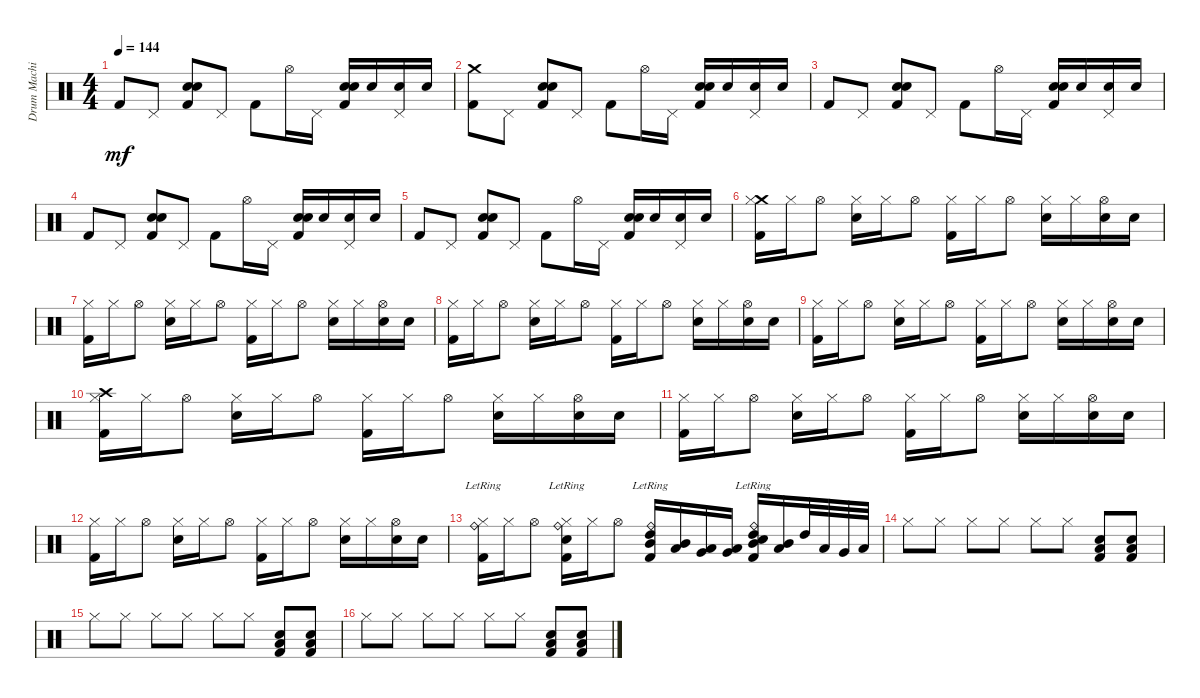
\track ("Drum Machine" "Drum Machi") {instrument percussion}
\staff {score}
\articulation defaults
\ts (4 4)
\tempo 144
\clef neutral
\ks c "Kick (hit) 2".8{dy mf} "Pedal Hi-Hat (hit)".8
("Hand Clap (hit)" "Electric Snare (hit)" "Kick (hit) 2").8 "Pedal Hi-Hat (hit)".8 "Kick (hit) 2".8 "Hi-Hat (open)".16 "Pedal Hi-Hat (hit)".16 ("Hand Clap (hit)" "Electric Snare (hit)" "Kick (hit) 2").16 "Hand Clap (hit)".16 ("Pedal Hi-Hat (hit)" "Hand Clap (hit)").16 "Hand Clap (hit)".16 |
("Crash medium (hit)" "Kick (hit) 2").8 "Pedal Hi-Hat (hit)".8 ("Hand Clap (hit)" "Electric Snare (hit)" "Kick (hit) 2").8 "Pedal Hi-Hat (hit)".8 "Kick (hit) 2".8 "Hi-Hat (open)".16 "Pedal Hi-Hat (hit)".16 ("Hand Clap (hit)" "Electric Snare (hit)" "Kick (hit) 2").16 "Hand Clap (hit)".16 ("Pedal Hi-Hat (hit)" "Hand Clap (hit)").16 "Hand Clap (hit)".16 |
"Kick (hit) 2".8 "Pedal Hi-Hat (hit)".8 ("Hand Clap (hit)" "Electric Snare (hit)" "Kick (hit) 2").8 "Pedal Hi-Hat (hit)".8 "Kick (hit) 2".8 "Hi-Hat (open)".16 "Pedal Hi-Hat (hit)".16 ("Hand Clap (hit)" "Electric Snare (hit)" "Kick (hit) 2").16 "Hand Clap (hit)".16 ("Pedal Hi-Hat (hit)" "Hand Clap (hit)").16 "Hand Clap (hit)".16 |
"Kick (hit) 2".8 "Pedal Hi-Hat (hit)".8 ("Hand Clap (hit)" "Electric Snare (hit)" "Kick (hit) 2").8 "Pedal Hi-Hat (hit)".8 "Kick (hit) 2".8 "Hi-Hat (open)".16 "Pedal Hi-Hat (hit)".16 ("Hand Clap (hit)" "Electric Snare (hit)" "Kick (hit) 2").16 "Hand Clap (hit)".16 ("Pedal Hi-Hat (hit)" "Hand Clap (hit)").16 "Hand Clap (hit)".16 |
"Kick (hit) 2".8 "Pedal Hi-Hat (hit)".8 ("Hand Clap (hit)" "Electric Snare (hit)" "Kick (hit) 2").8 "Pedal Hi-Hat (hit)".8 "Kick (hit) 2".8 "Hi-Hat (open)".16 "Pedal Hi-Hat (hit)".16 ("Hand Clap (hit)" "Electric Snare (hit)" "Kick (hit) 2").16 "Hand Clap (hit)".16 ("Pedal Hi-Hat (hit)" "Hand Clap (hit)").16 "Hand Clap (hit)".16 |
("Crash medium (hit)" "Hi-Hat (closed)" "Kick (hit) 2").16 "Hi-Hat (closed)".16 "Hi-Hat (open)".8 ("Hi-Hat (closed)" "Hand Clap (hit)").16 "Hi-Hat (closed)".16 "Hi-Hat (open)".8 ("Hi-Hat (closed)" "Kick (hit) 2").16 "Hi-Hat (closed)".16 "Hi-Hat (open)".8 ("Hi-Hat (closed)" "Hand Clap (hit)").16 "Hi-Hat (closed)".16 ("Hi-Hat (open)" "Hand Clap (hit)").16 "Hand Clap (hit)".16 |
("Hi-Hat (closed)" "Kick (hit) 2").16 "Hi-Hat (closed)".16 "Hi-Hat (open)".8 ("Hi-Hat (closed)" "Hand Clap (hit)").16 "Hi-Hat (closed)".16 "Hi-Hat (open)".8 ("Hi-Hat (closed)" "Kick (hit) 2").16 "Hi-Hat (closed)".16 "Hi-Hat (open)".8 ("Hi-Hat (closed)" "Hand Clap (hit)").16 "Hi-Hat (closed)".16 ("Hi-Hat (open)" "Hand Clap (hit)").16 "Hand Clap (hit)".16 |
("Hi-Hat (closed)" "Kick (hit) 2").16 "Hi-Hat (closed)".16 "Hi-Hat (open)".8 ("Hi-Hat (closed)" "Hand Clap (hit)").16 "Hi-Hat (closed)".16 "Hi-Hat (open)".8 ("Hi-Hat (closed)" "Kick (hit) 2").16 "Hi-Hat (closed)".16 "Hi-Hat (open)".8 ("Hi-Hat (closed)" "Hand Clap (hit)").16 "Hi-Hat (closed)".16 ("Hi-Hat (open)" "Hand Clap (hit)").16 "Hand Clap (hit)".16 |
("Hi-Hat (closed)" "Kick (hit) 2").16 "Hi-Hat (closed)".16 "Hi-Hat (open)".8 ("Hi-Hat (closed)" "Hand Clap (hit)").16 "Hi-Hat (closed)".16 "Hi-Hat (open)".8 ("Hi-Hat (closed)" "Kick (hit) 2").16 "Hi-Hat (closed)".16 "Hi-Hat (open)".8 ("Hi-Hat (closed)" "Hand Clap (hit)").16 "Hi-Hat (closed)".16 ("Hi-Hat (open)" "Hand Clap (hit)").16 "Hand Clap (hit)".16 |
("Crash high (hit)" "Hi-Hat (closed)" "Kick (hit) 2").16 "Hi-Hat (closed)".16 "Hi-Hat (open)".8 ("Hi-Hat (closed)" "Hand Clap (hit)").16 "Hi-Hat (closed)".16 "Hi-Hat (open)".8 ("Hi-Hat (closed)" "Kick (hit) 2").16 "Hi-Hat (closed)".16 "Hi-Hat (open)".8 ("Hi-Hat (closed)" "Hand Clap (hit)").16 "Hi-Hat (closed)".16 ("Hi-Hat (open)" "Hand Clap (hit)").16 "Hand Clap (hit)".16 |
("Hi-Hat (closed)" "Kick (hit) 2").16 "Hi-Hat (closed)".16 "Hi-Hat (open)".8 ("Hi-Hat (closed)" "Hand Clap (hit)").16 "Hi-Hat (closed)".16 "Hi-Hat (open)".8 ("Hi-Hat (closed)" "Kick (hit) 2").16 "Hi-Hat (closed)".16 "Hi-Hat (open)".8 ("Hi-Hat (closed)" "Hand Clap (hit)").16 "Hi-Hat (closed)".16 ("Hi-Hat (open)" "Hand Clap (hit)").16 "Hand Clap (hit)".16 |
("Hi-Hat (closed)" "Kick (hit) 2").16 "Hi-Hat (closed)".16 "Hi-Hat (open)".8 ("Hi-Hat (closed)" "Hand Clap (hit)").16 "Hi-Hat (closed)".16 "Hi-Hat (open)".8 ("Hi-Hat (closed)" "Kick (hit) 2").16 "Hi-Hat (closed)".16 "Hi-Hat (open)".8 ("Hi-Hat (closed)" "Hand Clap (hit)").16 "Hi-Hat (closed)".16 ("Hi-Hat (open)" "Hand Clap (hit)").16 "Hand Clap (hit)".16 |
("Ride (bell)"{lr} "Hi-Hat (closed)" "Kick (hit) 2").16 "Hi-Hat (closed)".16 "Hi-Hat (open)".8 ("Ride (bell)"{lr} "Hi-Hat (closed)" "Hand Clap (hit)" "Kick (hit) 2").16 "Hi-Hat (closed)".16 "Hi-Hat (open)".8 ("Ride (bell)"{lr} "High Tom (hit)" "Mid Tom (hit)" "Kick (hit) 2").16 ("Mid Tom (hit)" "Low Tom (hit)").16 ("Low Tom (hit)" "Very Low Tom (hit)").16 ("Very Low Tom (hit)" "Low Floor Tom (hit)").16 ("Ride (bell)"{lr} "Hand Clap (hit)" "High Tom (hit)" "Mid Tom (hit)" "Kick (hit) 2").16 ("Mid Tom (hit)" "Low Tom (hit)").16 "High Tom (hit)".32 "Low Tom (hit)".32 "Very Low Tom (hit)".32 "Low Floor Tom (hit)".32 |
"Hi-Hat (closed)".8 "Hi-Hat (closed)".8 "Hi-Hat (closed)".8 "Hi-Hat (closed)".8 "Hi-Hat (closed)".8 "Hi-Hat (closed)".8 ("Hand Clap (hit)" "Low Floor Tom (hit)" "Kick (hit) 2").8 ("Hand Clap (hit)" "Low Floor Tom (hit)" "Kick (hit) 2").8 |
"Hi-Hat (closed)".8 "Hi-Hat (closed)".8 "Hi-Hat (closed)".8 "Hi-Hat (closed)".8 "Hi-Hat (closed)".8 "Hi-Hat (closed)".8 ("Hand Clap (hit)" "Low Floor Tom (hit)" "Kick (hit) 2").8 ("Hand Clap (hit)" "Low Floor Tom (hit)" "Kick (hit) 2").8 |
"Hi-Hat (closed)".8 "Hi-Hat (closed)".8 "Hi-Hat (closed)".8 "Hi-Hat (closed)".8 "Hi-Hat (closed)".8 "Hi-Hat (closed)".8 ("Hand Clap (hit)" "Low Floor Tom (hit)" "Kick (hit) 2").8 ("Hand Clap (hit)" "Low Floor Tom (hit)" "Kick (hit) 2").8
